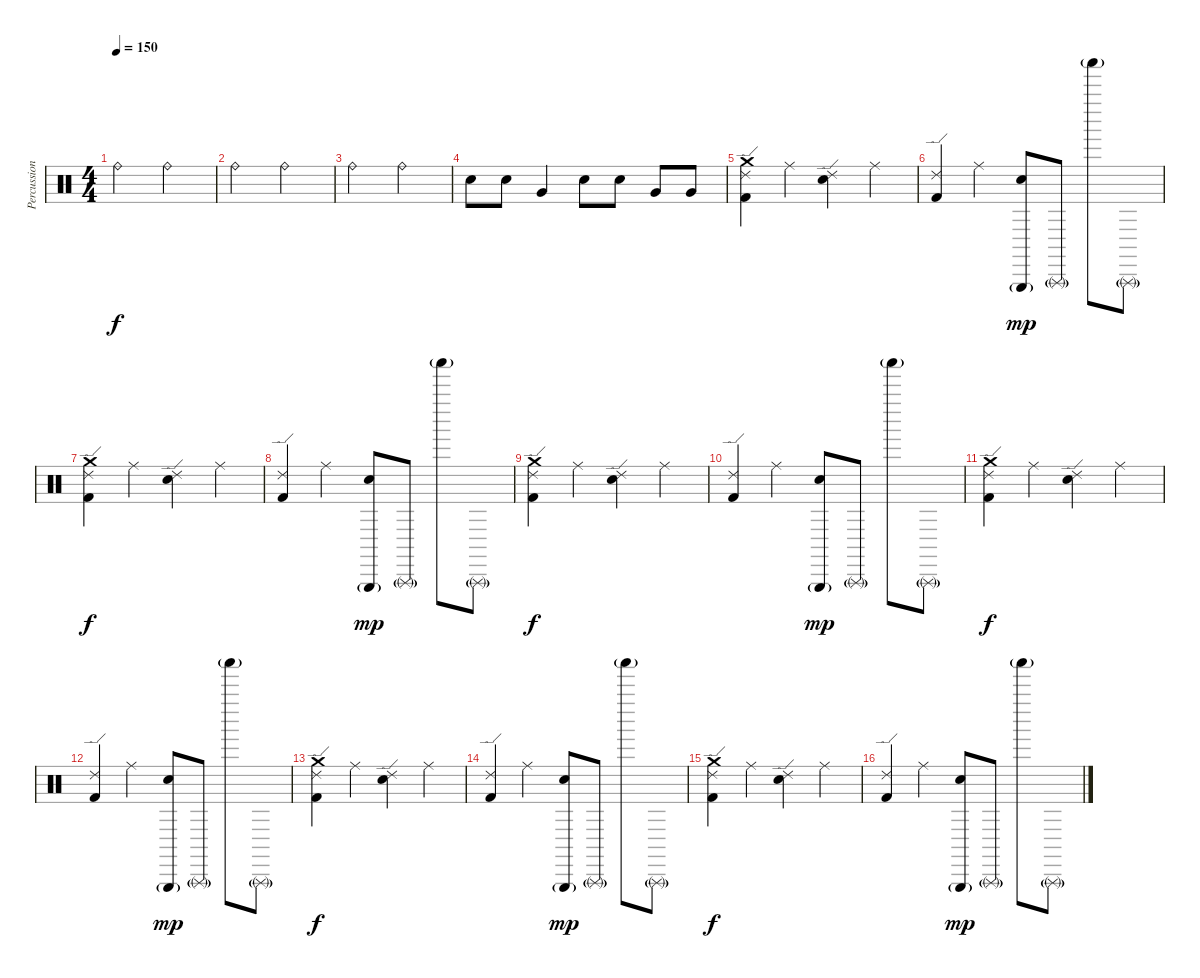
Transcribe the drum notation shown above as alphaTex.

\track ("Percussion" "Percussion") {instrument percussion}
\staff {score}
\articulation defaults
\ts (4 4)
\tempo 150
\clef neutral
\ks c "Ride (bell)".2{dy f} "Ride (bell)".2
|
"Ride (bell)".2 "Ride (bell)".2 |
"Ride (bell)".2 "Ride (bell)".2 |
"Snare (hit) 2".8 "Snare (hit) 2".8 "Very Low Tom (hit)".4 "Snare (hit) 2".8 "Snare (hit) 2".8 "Very Low Tom (hit)".8 "Very Low Tom (hit)".8 |
("Crash medium (hit)" "Ride (edge) 2" "Kick (hit) 2").4 "Ride (middle)".4 ("Ride (edge) 2" "Snare (hit) 2").4 "Ride (middle)".4 |
("Ride (edge) 2" "Kick (hit) 2").4 "Ride (middle)".4 ("Triangle (hit)"{g} "Snare (hit) 2").8{dy mp} "Triangle (rnute)"{g}.8 "Shaker (hit)"{g}.8 "Triangle (rnute)"{g}.8 |
("Crash medium (hit)" "Ride (edge) 2" "Kick (hit) 2").4{dy f} "Ride (middle)".4 ("Ride (edge) 2" "Snare (hit) 2").4 "Ride (middle)".4 |
("Ride (edge) 2" "Kick (hit) 2").4 "Ride (middle)".4 ("Triangle (hit)"{g} "Snare (hit) 2").8{dy mp} "Triangle (rnute)"{g}.8 "Shaker (hit)"{g}.8 "Triangle (rnute)"{g}.8 |
("Crash medium (hit)" "Ride (edge) 2" "Kick (hit) 2").4{dy f} "Ride (middle)".4 ("Ride (edge) 2" "Snare (hit) 2").4 "Ride (middle)".4 |
("Ride (edge) 2" "Kick (hit) 2").4 "Ride (middle)".4 ("Triangle (hit)"{g} "Snare (hit) 2").8{dy mp} "Triangle (rnute)"{g}.8 "Shaker (hit)"{g}.8 "Triangle (rnute)"{g}.8 |
("Crash medium (hit)" "Ride (edge) 2" "Kick (hit) 2").4{dy f} "Ride (middle)".4 ("Ride (edge) 2" "Snare (hit) 2").4 "Ride (middle)".4 |
("Ride (edge) 2" "Kick (hit) 2").4 "Ride (middle)".4 ("Triangle (hit)"{g} "Snare (hit) 2").8{dy mp} "Triangle (rnute)"{g}.8 "Shaker (hit)"{g}.8 "Triangle (rnute)"{g}.8 |
("Crash medium (hit)" "Ride (edge) 2" "Kick (hit) 2").4{dy f} "Ride (middle)".4 ("Ride (edge) 2" "Snare (hit) 2").4 "Ride (middle)".4 |
("Ride (edge) 2" "Kick (hit) 2").4 "Ride (middle)".4 ("Triangle (hit)"{g} "Snare (hit) 2").8{dy mp} "Triangle (rnute)"{g}.8 "Shaker (hit)"{g}.8 "Triangle (rnute)"{g}.8 |
("Crash medium (hit)" "Ride (edge) 2" "Kick (hit) 2").4{dy f} "Ride (middle)".4 ("Ride (edge) 2" "Snare (hit) 2").4 "Ride (middle)".4 |
("Ride (edge) 2" "Kick (hit) 2").4 "Ride (middle)".4 ("Triangle (hit)"{g} "Snare (hit) 2").8{dy mp} "Triangle (rnute)"{g}.8 "Shaker (hit)"{g}.8 "Triangle (rnute)"{g}.8
